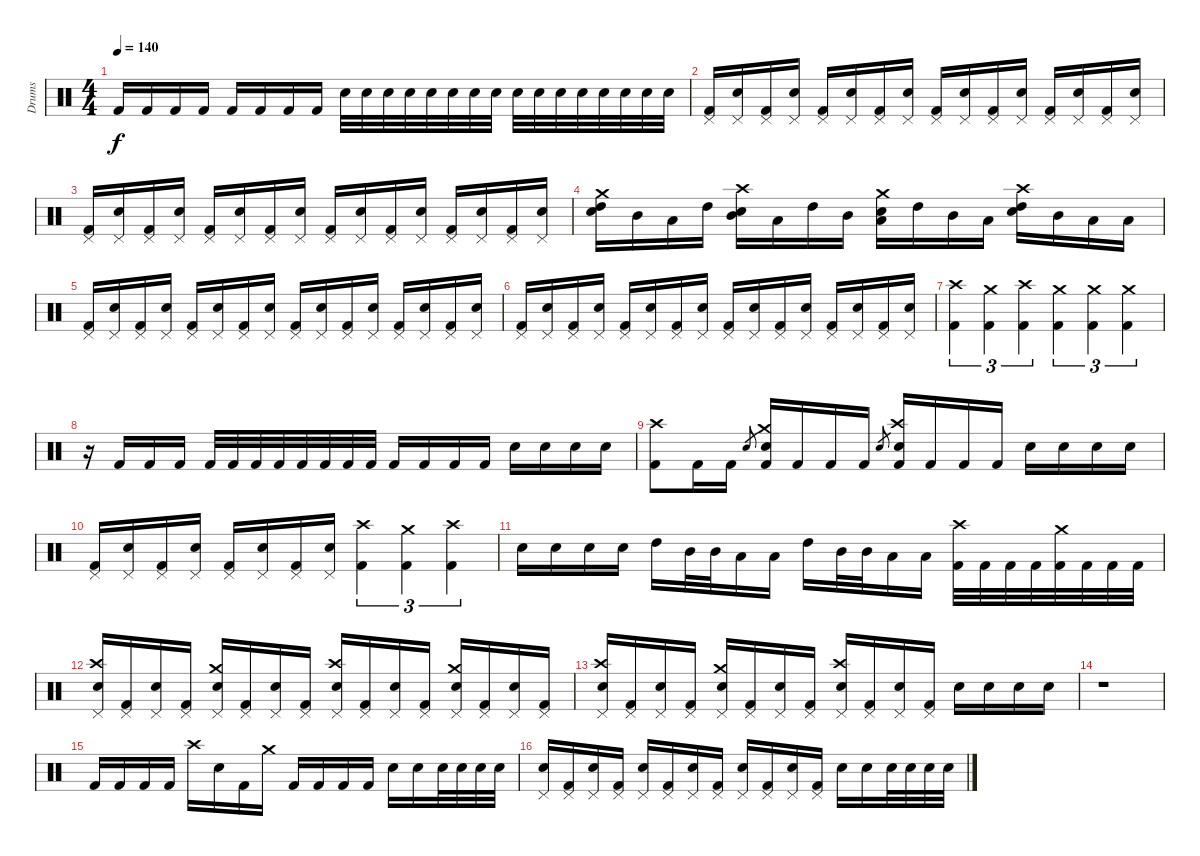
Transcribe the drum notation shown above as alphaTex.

\track ("Drums" "Drums") {instrument percussion}
\staff {score}
\articulation defaults
\ts (4 4)
\tempo 140
\clef neutral
\ks c "Kick (hit) 2".16{dy f} "Kick (hit) 2".16 "Kick (hit) 2".16 "Kick (hit) 2".16 "Kick (hit) 2".16 "Kick (hit) 2".16 "Kick (hit) 2".16 "Kick (hit) 2".16 "Electric Snare (hit)".32 "Electric Snare (hit)".32 "Electric Snare (hit)".32 "Electric Snare (hit)".32 "Electric Snare (hit)".32 "Electric Snare (hit)".32 "Electric Snare (hit)".32 "Electric Snare (hit)".32 "Electric Snare (hit)".32 "Electric Snare (hit)".32 "Electric Snare (hit)".32 "Electric Snare (hit)".32 "Electric Snare (hit)".32 "Electric Snare (hit)".32 "Electric Snare (hit)".32 "Electric Snare (hit)".32
|
("Pedal Hi-Hat (hit)" "Kick (hit) 2").16 ("Electric Snare (hit)" "Pedal Hi-Hat (hit)").16 ("Pedal Hi-Hat (hit)" "Kick (hit) 2").16 ("Electric Snare (hit)" "Pedal Hi-Hat (hit)").16 ("Pedal Hi-Hat (hit)" "Kick (hit) 2").16 ("Electric Snare (hit)" "Pedal Hi-Hat (hit)").16 ("Pedal Hi-Hat (hit)" "Kick (hit) 2").16 ("Electric Snare (hit)" "Pedal Hi-Hat (hit)").16 ("Pedal Hi-Hat (hit)" "Kick (hit) 2").16 ("Electric Snare (hit)" "Pedal Hi-Hat (hit)").16 ("Pedal Hi-Hat (hit)" "Kick (hit) 2").16 ("Electric Snare (hit)" "Pedal Hi-Hat (hit)").16 ("Pedal Hi-Hat (hit)" "Kick (hit) 2").16 ("Electric Snare (hit)" "Pedal Hi-Hat (hit)").16 ("Pedal Hi-Hat (hit)" "Kick (hit) 2").16 ("Electric Snare (hit)" "Pedal Hi-Hat (hit)").16 |
("Pedal Hi-Hat (hit)" "Kick (hit) 2").16 ("Electric Snare (hit)" "Pedal Hi-Hat (hit)").16 ("Pedal Hi-Hat (hit)" "Kick (hit) 2").16 ("Electric Snare (hit)" "Pedal Hi-Hat (hit)").16 ("Pedal Hi-Hat (hit)" "Kick (hit) 2").16 ("Electric Snare (hit)" "Pedal Hi-Hat (hit)").16 ("Pedal Hi-Hat (hit)" "Kick (hit) 2").16 ("Electric Snare (hit)" "Pedal Hi-Hat (hit)").16 ("Pedal Hi-Hat (hit)" "Kick (hit) 2").16 ("Electric Snare (hit)" "Pedal Hi-Hat (hit)").16 ("Pedal Hi-Hat (hit)" "Kick (hit) 2").16 ("Electric Snare (hit)" "Pedal Hi-Hat (hit)").16 ("Pedal Hi-Hat (hit)" "Kick (hit) 2").16 ("Electric Snare (hit)" "Pedal Hi-Hat (hit)").16 ("Pedal Hi-Hat (hit)" "Kick (hit) 2").16 ("Electric Snare (hit)" "Pedal Hi-Hat (hit)").16 |
("Crash medium (hit)" "High Tom (hit)" "Electric Snare (hit)").16 "Mid Tom (hit)".16 "Low Tom (hit)".16 "High Tom (hit)".16 ("Crash high (hit)" "Mid Tom (hit)" "Electric Snare (hit)").16 "Low Tom (hit)".16 "High Tom (hit)".16 "Mid Tom (hit)".16 ("Crash medium (hit)" "Low Tom (hit)" "Electric Snare (hit)").16 "High Tom (hit)".16 "Mid Tom (hit)".16 "Low Tom (hit)".16 ("Crash high (hit)" "High Tom (hit)" "Electric Snare (hit)").16 "Mid Tom (hit)".16 "Low Tom (hit)".16 "Low Floor Tom (hit)".16 |
("Pedal Hi-Hat (hit)" "Kick (hit) 2").16 ("Electric Snare (hit)" "Pedal Hi-Hat (hit)").16 ("Pedal Hi-Hat (hit)" "Kick (hit) 2").16 ("Electric Snare (hit)" "Pedal Hi-Hat (hit)").16 ("Pedal Hi-Hat (hit)" "Kick (hit) 2").16 ("Electric Snare (hit)" "Pedal Hi-Hat (hit)").16 ("Pedal Hi-Hat (hit)" "Kick (hit) 2").16 ("Electric Snare (hit)" "Pedal Hi-Hat (hit)").16 ("Pedal Hi-Hat (hit)" "Kick (hit) 2").16 ("Electric Snare (hit)" "Pedal Hi-Hat (hit)").16 ("Pedal Hi-Hat (hit)" "Kick (hit) 2").16 ("Electric Snare (hit)" "Pedal Hi-Hat (hit)").16 ("Pedal Hi-Hat (hit)" "Kick (hit) 2").16 ("Electric Snare (hit)" "Pedal Hi-Hat (hit)").16 ("Pedal Hi-Hat (hit)" "Kick (hit) 2").16 ("Electric Snare (hit)" "Pedal Hi-Hat (hit)").16 |
("Pedal Hi-Hat (hit)" "Kick (hit) 2").16 ("Electric Snare (hit)" "Pedal Hi-Hat (hit)").16 ("Pedal Hi-Hat (hit)" "Kick (hit) 2").16 ("Electric Snare (hit)" "Pedal Hi-Hat (hit)").16 ("Pedal Hi-Hat (hit)" "Kick (hit) 2").16 ("Electric Snare (hit)" "Pedal Hi-Hat (hit)").16 ("Pedal Hi-Hat (hit)" "Kick (hit) 2").16 ("Electric Snare (hit)" "Pedal Hi-Hat (hit)").16 ("Pedal Hi-Hat (hit)" "Kick (hit) 2").16 ("Electric Snare (hit)" "Pedal Hi-Hat (hit)").16 ("Pedal Hi-Hat (hit)" "Kick (hit) 2").16 ("Electric Snare (hit)" "Pedal Hi-Hat (hit)").16 ("Pedal Hi-Hat (hit)" "Kick (hit) 2").16 ("Electric Snare (hit)" "Pedal Hi-Hat (hit)").16 ("Pedal Hi-Hat (hit)" "Kick (hit) 2").16 ("Electric Snare (hit)" "Pedal Hi-Hat (hit)").16 |
("Crash high (hit)" "Kick (hit) 2").4{tu (3 2)} ("Crash medium (hit)" "Kick (hit) 2").4{tu (3 2)} ("Crash high (hit)" "Kick (hit) 2").4{tu (3 2)} ("Crash medium (hit)" "Kick (hit) 2").4{tu (3 2)} ("Crash medium (hit)" "Kick (hit) 2").4{tu (3 2)} ("Crash medium (hit)" "Kick (hit) 2").4{tu (3 2)} |
r.16 "Kick (hit) 2".16 "Kick (hit) 2".16 "Kick (hit) 2".16 "Kick (hit) 2".32 "Kick (hit) 2".32 "Kick (hit) 2".32 "Kick (hit) 2".32 "Kick (hit) 2".32 "Kick (hit) 2".32 "Kick (hit) 2".32 "Kick (hit) 2".32 "Kick (hit) 2".16 "Kick (hit) 2".16 "Kick (hit) 2".16 "Kick (hit) 2".16 "Snare (hit) 2".16 "Snare (hit) 2".16 "Snare (hit) 2".16 "Snare (hit) 2".16 |
("Crash high (hit)" "Kick (hit) 2").8 "Kick (hit) 2".16 "Kick (hit) 2".16 "Snare (hit) 2".8{gr} ("Crash medium (hit)" "Snare (hit) 2" "Kick (hit) 2").16 "Kick (hit) 2".16 "Kick (hit) 2".16 "Kick (hit) 2".16 "Snare (hit) 2".8{gr} ("Crash high (hit)" "Snare (hit) 2" "Kick (hit) 2").16 "Kick (hit) 2".16 "Kick (hit) 2".16 "Kick (hit) 2".16 "Snare (hit) 2".16 "Snare (hit) 2".16 "Snare (hit) 2".16 "Snare (hit) 2".16 |
("Pedal Hi-Hat (hit)" "Kick (hit) 2").16 ("Snare (hit) 2" "Pedal Hi-Hat (hit)").16 ("Pedal Hi-Hat (hit)" "Kick (hit) 2").16 ("Snare (hit) 2" "Pedal Hi-Hat (hit)").16 ("Pedal Hi-Hat (hit)" "Kick (hit) 2").16 ("Snare (hit) 2" "Pedal Hi-Hat (hit)").16 ("Pedal Hi-Hat (hit)" "Kick (hit) 2").16 ("Snare (hit) 2" "Pedal Hi-Hat (hit)").16 ("Crash high (hit)" "Kick (hit) 2").4{tu (3 2)} ("Crash medium (hit)" "Kick (hit) 2").4{tu (3 2)} ("Crash high (hit)" "Kick (hit) 2").4{tu (3 2)} |
"Snare (hit) 2".16 "Snare (hit) 2".16 "Snare (hit) 2".16 "Snare (hit) 2".16 "High Tom (hit)".16 "Mid Tom (hit)".32 "Mid Tom (hit)".32 "Low Tom (hit)".16 "Low Floor Tom (hit)".16 "High Tom (hit)".16 "Mid Tom (hit)".32 "Mid Tom (hit)".32 "Low Tom (hit)".16 "Low Floor Tom (hit)".16 ("Crash high (hit)" "Kick (hit) 2").32 "Kick (hit) 2".32 "Kick (hit) 2".32 "Kick (hit) 2".32 ("Crash medium (hit)" "Kick (hit) 2").32 "Kick (hit) 2".32 "Kick (hit) 2".32 "Kick (hit) 2".32 |
("Crash high (hit)" "Snare (hit) 2" "Pedal Hi-Hat (hit)").16 ("Pedal Hi-Hat (hit)" "Kick (hit) 2").16 ("Snare (hit) 2" "Pedal Hi-Hat (hit)").16 ("Pedal Hi-Hat (hit)" "Kick (hit) 2").16 ("Crash medium (hit)" "Snare (hit) 2" "Pedal Hi-Hat (hit)").16 ("Pedal Hi-Hat (hit)" "Kick (hit) 2").16 ("Snare (hit) 2" "Pedal Hi-Hat (hit)").16 ("Pedal Hi-Hat (hit)" "Kick (hit) 2").16 ("Crash high (hit)" "Snare (hit) 2" "Pedal Hi-Hat (hit)").16 ("Pedal Hi-Hat (hit)" "Kick (hit) 2").16 ("Snare (hit) 2" "Pedal Hi-Hat (hit)").16 ("Pedal Hi-Hat (hit)" "Kick (hit) 2").16 ("Crash medium (hit)" "Snare (hit) 2" "Pedal Hi-Hat (hit)").16 ("Pedal Hi-Hat (hit)" "Kick (hit) 2").16 ("Snare (hit) 2" "Pedal Hi-Hat (hit)").16 ("Pedal Hi-Hat (hit)" "Kick (hit) 2").16 |
("Crash high (hit)" "Snare (hit) 2" "Pedal Hi-Hat (hit)").16 ("Pedal Hi-Hat (hit)" "Kick (hit) 2").16 ("Snare (hit) 2" "Pedal Hi-Hat (hit)").16 ("Pedal Hi-Hat (hit)" "Kick (hit) 2").16 ("Crash medium (hit)" "Snare (hit) 2" "Pedal Hi-Hat (hit)").16 ("Pedal Hi-Hat (hit)" "Kick (hit) 2").16 ("Snare (hit) 2" "Pedal Hi-Hat (hit)").16 ("Pedal Hi-Hat (hit)" "Kick (hit) 2").16 ("Crash high (hit)" "Snare (hit) 2" "Pedal Hi-Hat (hit)").16 ("Pedal Hi-Hat (hit)" "Kick (hit) 2").16 ("Snare (hit) 2" "Pedal Hi-Hat (hit)").16 ("Pedal Hi-Hat (hit)" "Kick (hit) 2").16 "Snare (hit) 2".16 "Snare (hit) 2".16 "Snare (hit) 2".16 "Snare (hit) 2".16 |
r.1 |
"Kick (hit) 2".16 "Kick (hit) 2".16 "Kick (hit) 2".16 "Kick (hit) 2".16 "Crash high (hit)".16 "Snare (hit) 2".16 "Kick (hit) 2".16 "Crash medium (hit)".16 "Kick (hit) 2".16 "Kick (hit) 2".16 "Kick (hit) 2".16 "Kick (hit) 2".16 "Snare (hit) 2".16 "Snare (hit) 2".16 "Snare (hit) 2".32 "Snare (hit) 2".32 "Snare (hit) 2".32 "Snare (hit) 2".32 |
("Snare (hit) 2" "Pedal Hi-Hat (hit)").16 ("Pedal Hi-Hat (hit)" "Kick (hit) 2").16 ("Snare (hit) 2" "Pedal Hi-Hat (hit)").16 ("Pedal Hi-Hat (hit)" "Kick (hit) 2").16 ("Snare (hit) 2" "Pedal Hi-Hat (hit)").16 ("Pedal Hi-Hat (hit)" "Kick (hit) 2").16 ("Snare (hit) 2" "Pedal Hi-Hat (hit)").16 ("Pedal Hi-Hat (hit)" "Kick (hit) 2").16 ("Snare (hit) 2" "Pedal Hi-Hat (hit)").16 ("Pedal Hi-Hat (hit)" "Kick (hit) 2").16 ("Snare (hit) 2" "Pedal Hi-Hat (hit)").16 ("Pedal Hi-Hat (hit)" "Kick (hit) 2").16 "Snare (hit) 2".16 "Snare (hit) 2".16 "Snare (hit) 2".32 "Snare (hit) 2".32 "Snare (hit) 2".32 "Snare (hit) 2".32
